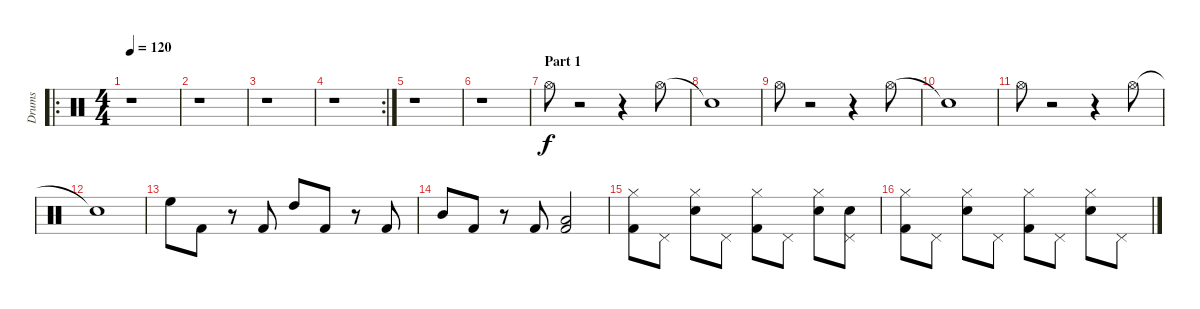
\track ("Drums" "Drums") {instrument percussion}
\staff {score}
\articulation defaults
\ro
\ts (4 4)
\tempo 120
\clef neutral
\ks c
r.1{dy f} |
r.1 |
r.1 |
\rc 2
r.1 |
r.1 |
r.1 |
\section ("" "Part 1")
"Hi-Hat (open)".8 r.2 r.4 "Hi-Hat (open)".8 |
"Snare (hit)"{t}.1 |
"Hi-Hat (open)".8 r.2 r.4 "Hi-Hat (open)".8 |
"Snare (hit)"{t}.1 |
"Hi-Hat (open)".8 r.2 r.4 "Hi-Hat (open)".8 |
"Snare (hit)"{t}.1 |
"High Floor Tom (hit)".8 "Kick (hit) 2".8 r.8 "Kick (hit) 2".8 "High Tom (hit)".8 "Kick (hit) 2".8 r.8 "Kick (hit) 2".8 |
"Mid Tom (hit)".8 "Kick (hit) 2".8 r.8 "Kick (hit) 2".8 ("Low Tom (hit)" "Kick (hit) 2").2 |
("Hi-Hat (closed)" "Kick (hit) 2").8 "Pedal Hi-Hat (hit)".8 ("Hi-Hat (closed)" "Electric Snare (hit)").8 "Pedal Hi-Hat (hit)".8 ("Hi-Hat (closed)" "Kick (hit) 2").8 "Pedal Hi-Hat (hit)".8 ("Hi-Hat (closed)" "Electric Snare (hit)").8 ("Pedal Hi-Hat (hit)" "Electric Snare (hit)").8 |
("Hi-Hat (closed)" "Kick (hit) 2").8 "Pedal Hi-Hat (hit)".8 ("Hi-Hat (closed)" "Electric Snare (hit)").8 "Pedal Hi-Hat (hit)".8 ("Hi-Hat (closed)" "Kick (hit) 2").8 "Pedal Hi-Hat (hit)".8 ("Hi-Hat (closed)" "Electric Snare (hit)").8 "Pedal Hi-Hat (hit)".8
